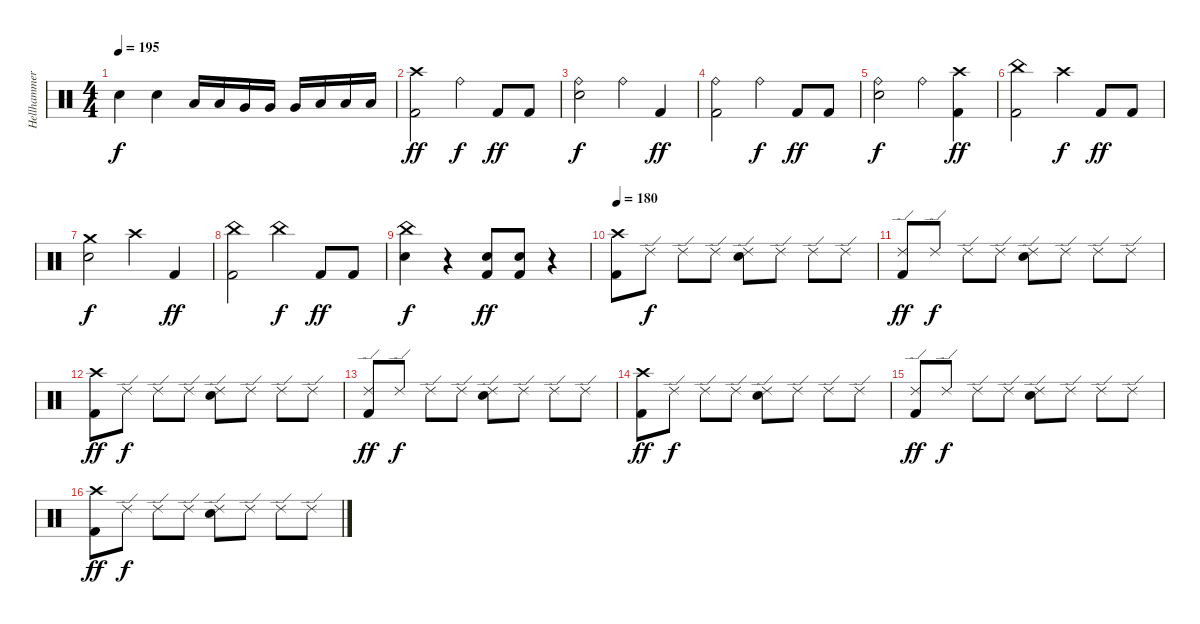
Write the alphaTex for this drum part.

\track ("Hellhammer" "Hellhammer") {instrument percussion}
\staff {score}
\articulation defaults
\ts (4 4)
\tempo 195
\clef neutral
\ks c "Electric Snare (hit)".4{dy f} "Electric Snare (hit)".4 "Low Tom (hit)".16 "Low Tom (hit)".16 "Very Low Tom (hit)".16 "Very Low Tom (hit)".16 "Very Low Tom (hit)".16 "Low Floor Tom (hit)".16 "Low Floor Tom (hit)".16 "Low Floor Tom (hit)".16
|
("Crash high (hit)" "Kick (hit) 2").2{dy ff} "Ride (bell)".4{dy f} "Kick (hit) 2".8{dy ff} "Kick (hit) 2".8 |
("Ride (bell)" "Electric Snare (hit)").2{dy f} "Ride (bell)".4 "Kick (hit) 2".4{dy ff} |
("Ride (bell)" "Kick (hit) 2").2 "Ride (bell)".4{dy f} "Kick (hit) 2".8{dy ff} "Kick (hit) 2".8 |
("Ride (bell)" "Electric Snare (hit)").2{dy f} "Ride (bell)".4 ("Crash high (hit)" "Kick (hit) 2").4{dy ff} |
("China (hit)" "Kick (hit) 2").2 "Crash high (hit)".4{dy f} "Kick (hit) 2".8{dy ff} "Kick (hit) 2".8 |
("Crash medium (hit)" "Electric Snare (hit)").2{dy f} "Crash high (hit)".4 "Kick (hit) 2".4{dy ff} |
("China (hit)" "Kick (hit) 2").2 "China (hit)".4{dy f} "Kick (hit) 2".8{dy ff} "Kick (hit) 2".8 |
("China (hit)" "Electric Snare (hit)").4{dy f} r.4 ("Electric Snare (hit)" "Kick (hit) 2").8{dy ff} ("Electric Snare (hit)" "Kick (hit) 2").8 r.4 |
\tempo 180
("Crash high (hit)" "Kick (hit) 2").8 "Ride (edge) 2".8{dy f} "Ride (edge) 2".8 "Ride (edge) 2".8 ("Ride (edge) 2" "Electric Snare (hit)").8 "Ride (edge) 2".8 "Ride (edge) 2".8 "Ride (edge) 2".8 |
("Ride (edge) 2" "Kick (hit) 2").8{dy ff} "Ride (edge) 2".8{dy f} "Ride (edge) 2".8 "Ride (edge) 2".8 ("Ride (edge) 2" "Electric Snare (hit)").8 "Ride (edge) 2".8 "Ride (edge) 2".8 "Ride (edge) 2".8 |
("Crash high (hit)" "Kick (hit) 2").8{dy ff} "Ride (edge) 2".8{dy f} "Ride (edge) 2".8 "Ride (edge) 2".8 ("Ride (edge) 2" "Electric Snare (hit)").8 "Ride (edge) 2".8 "Ride (edge) 2".8 "Ride (edge) 2".8 |
("Ride (edge) 2" "Kick (hit) 2").8{dy ff} "Ride (edge) 2".8{dy f} "Ride (edge) 2".8 "Ride (edge) 2".8 ("Ride (edge) 2" "Electric Snare (hit)").8 "Ride (edge) 2".8 "Ride (edge) 2".8 "Ride (edge) 2".8 |
("Crash high (hit)" "Kick (hit) 2").8{dy ff} "Ride (edge) 2".8{dy f} "Ride (edge) 2".8 "Ride (edge) 2".8 ("Ride (edge) 2" "Electric Snare (hit)").8 "Ride (edge) 2".8 "Ride (edge) 2".8 "Ride (edge) 2".8 |
("Ride (edge) 2" "Kick (hit) 2").8{dy ff} "Ride (edge) 2".8{dy f} "Ride (edge) 2".8 "Ride (edge) 2".8 ("Ride (edge) 2" "Electric Snare (hit)").8 "Ride (edge) 2".8 "Ride (edge) 2".8 "Ride (edge) 2".8 |
("Crash high (hit)" "Kick (hit) 2").8{dy ff} "Ride (edge) 2".8{dy f} "Ride (edge) 2".8 "Ride (edge) 2".8 ("Ride (edge) 2" "Electric Snare (hit)").8 "Ride (edge) 2".8 "Ride (edge) 2".8 "Ride (edge) 2".8
